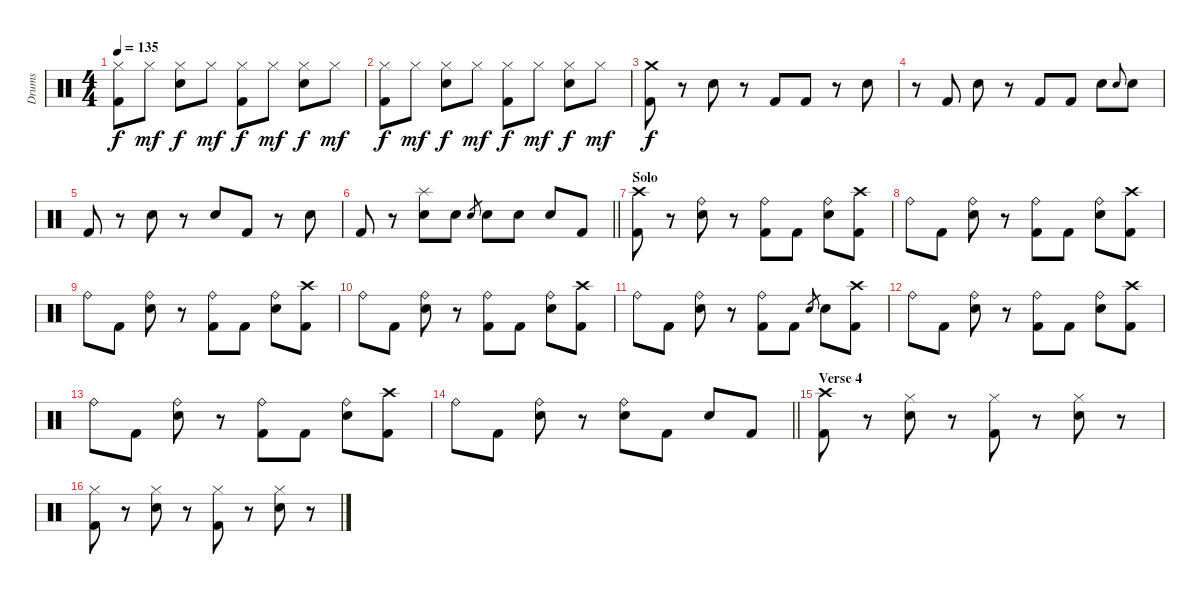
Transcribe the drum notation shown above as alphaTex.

\track ("Drums" "Drums") {instrument percussion}
\staff {score}
\articulation defaults
\ts (4 4)
\tempo 135
\clef neutral
\ks c
("Hi-Hat (closed)" "Kick (hit) 2").8{dy f} "Hi-Hat (closed)".8{dy mf} ("Hi-Hat (closed)" "Snare (hit) 2").8{dy f} "Hi-Hat (closed)".8{dy mf} ("Hi-Hat (closed)" "Kick (hit) 2").8{dy f} "Hi-Hat (closed)".8{dy mf} ("Hi-Hat (closed)" "Snare (hit) 2").8{dy f} "Hi-Hat (closed)".8{dy mf} |
("Hi-Hat (closed)" "Kick (hit) 2").8{dy f} "Hi-Hat (closed)".8{dy mf} ("Hi-Hat (closed)" "Snare (hit) 2").8{dy f} "Hi-Hat (closed)".8{dy mf} ("Hi-Hat (closed)" "Kick (hit) 2").8{dy f} "Hi-Hat (closed)".8{dy mf} ("Hi-Hat (closed)" "Snare (hit) 2").8{dy f} "Hi-Hat (closed)".8{dy mf} |
("Crash medium (hit)" "Kick (hit) 2").8{dy f} r.8 "Snare (hit) 2".8 r.8 "Kick (hit) 2".8 "Kick (hit) 2".8 r.8 "Snare (hit) 2".8 |
r.8 "Kick (hit) 2".8 "Snare (hit) 2".8 r.8 "Kick (hit) 2".8 "Kick (hit) 2".8 "Snare (hit) 2".8 "Snare (hit) 2".8{gr onbeat} "Snare (hit) 2".8 |
"Kick (hit) 2".8 r.8 "Snare (hit) 2".8 r.8 "Snare (hit) 2".8 "Kick (hit) 2".8 r.8 "Snare (hit) 2".8 |
\barLineRight lightlight "Kick (hit) 2".8
r.8 ("Splash (hit)" "Snare (hit) 2").8 "Snare (hit) 2".8 "Snare (hit) 2".8{gr} "Snare (hit) 2".8 "Snare (hit) 2".8 "Snare (hit) 2".8 "Kick (hit) 2".8 |
\section ("" "Solo")
("Crash high (hit)" "Kick (hit) 2").8 r.8 ("Ride (bell)" "Snare (hit) 2").8 r.8 ("Ride (bell)" "Kick (hit) 2").8 "Kick (hit) 2".8 ("Ride (bell)" "Snare (hit) 2").8 ("Crash high (hit)" "Kick (hit) 2").8 |
"Ride (bell)".8 "Kick (hit) 2".8 ("Ride (bell)" "Snare (hit) 2").8 r.8 ("Ride (bell)" "Kick (hit) 2").8 "Kick (hit) 2".8 ("Ride (bell)" "Snare (hit) 2").8 ("Crash high (hit)" "Kick (hit) 2").8 |
"Ride (bell)".8 "Kick (hit) 2".8 ("Ride (bell)" "Snare (hit) 2").8 r.8 ("Ride (bell)" "Kick (hit) 2").8 "Kick (hit) 2".8 ("Ride (bell)" "Snare (hit) 2").8 ("Crash high (hit)" "Kick (hit) 2").8 |
"Ride (bell)".8 "Kick (hit) 2".8 ("Ride (bell)" "Snare (hit) 2").8 r.8 ("Ride (bell)" "Kick (hit) 2").8 "Kick (hit) 2".8 ("Ride (bell)" "Snare (hit) 2").8 ("Crash high (hit)" "Kick (hit) 2").8 |
"Ride (bell)".8 "Kick (hit) 2".8 ("Ride (bell)" "Snare (hit) 2").8 r.8 ("Ride (bell)" "Kick (hit) 2").8 "Kick (hit) 2".8 "Snare (hit) 2".8{gr} "Snare (hit) 2".8 ("Crash high (hit)" "Kick (hit) 2").8 |
"Ride (bell)".8 "Kick (hit) 2".8 ("Ride (bell)" "Snare (hit) 2").8 r.8 ("Ride (bell)" "Kick (hit) 2").8 "Kick (hit) 2".8 ("Ride (bell)" "Snare (hit) 2").8 ("Crash high (hit)" "Kick (hit) 2").8 |
"Ride (bell)".8 "Kick (hit) 2".8 ("Ride (bell)" "Snare (hit) 2").8 r.8 ("Ride (bell)" "Kick (hit) 2").8 "Kick (hit) 2".8 ("Ride (bell)" "Snare (hit) 2").8 ("Crash high (hit)" "Kick (hit) 2").8 |
\barLineRight lightlight "Ride (bell)".8 "Kick (hit) 2".8
("Ride (bell)" "Snare (hit) 2").8 r.8 ("Ride (bell)" "Snare (hit) 2").8 "Kick (hit) 2".8 "Snare (hit) 2".8 "Kick (hit) 2".8 |
\section ("" "Verse 4")
("Crash high (hit)" "Kick (hit) 2").8 r.8 ("Hi-Hat (closed)" "Snare (hit) 2").8 r.8 ("Hi-Hat (closed)" "Kick (hit) 2").8 r.8 ("Hi-Hat (closed)" "Snare (hit) 2").8 r.8 |
("Hi-Hat (closed)" "Kick (hit) 2").8 r.8 ("Hi-Hat (closed)" "Snare (hit) 2").8 r.8 ("Hi-Hat (closed)" "Kick (hit) 2").8 r.8 ("Hi-Hat (closed)" "Snare (hit) 2").8 r.8
